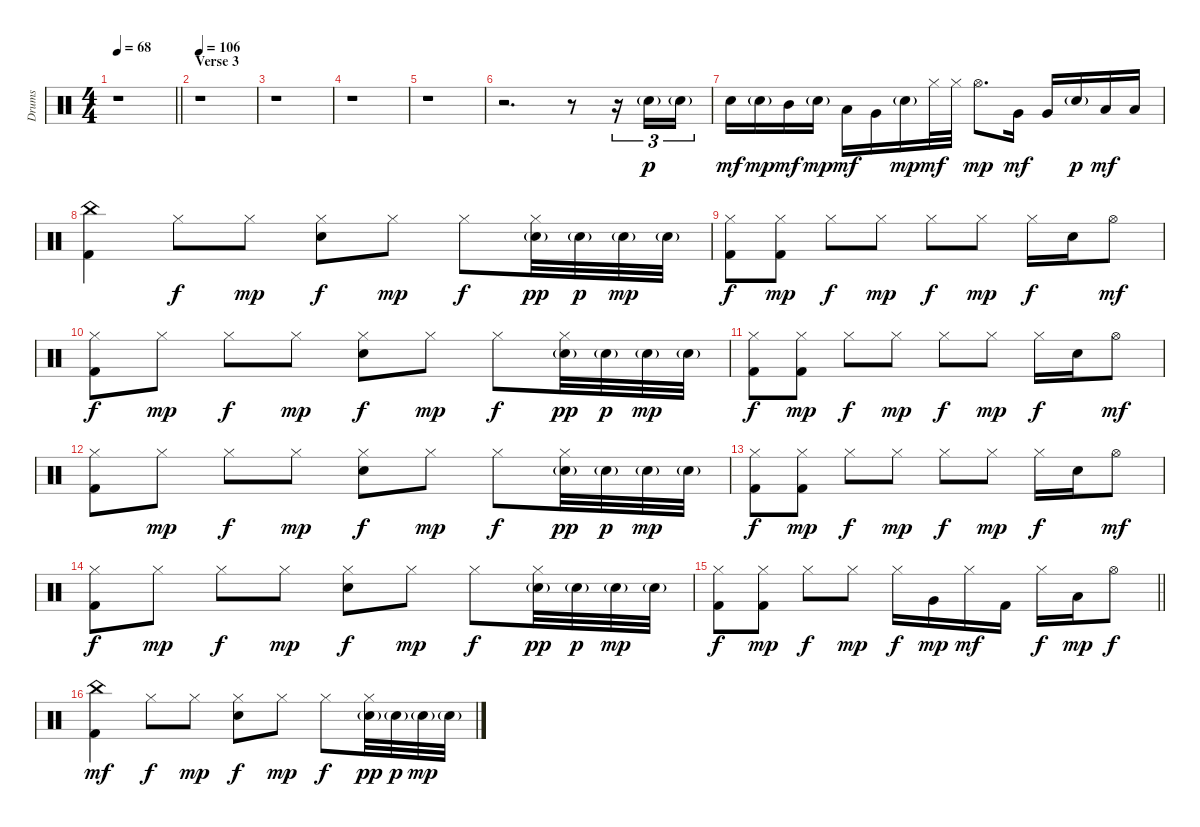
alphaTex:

\track ("Drums" "Drums") {instrument percussion}
\staff {score}
\articulation defaults
\ts (4 4)
\tempo 68
\clef neutral
\barLineRight lightlight
\ks c
r.1{dy fff} |
\section ("" "Verse 3")
\tempo 106
r.1 |
r.1 |
r.1 |
r.1 |
r.2{d} r.8 r.16{tu (3 2)} "Electric Snare (hit)"{g}.16{tu (3 2) dy p} "Electric Snare (hit)"{g}.16{tu (3 2)} |
"Electric Snare (hit)".16{dy mf} "Electric Snare (hit)"{g}.16{dy mp} "Mid Tom (hit)".16{dy mf} "Electric Snare (hit)"{g}.16{dy mp} "Low Tom (hit)".16{dy mf} "Very Low Tom (hit)".16 "Electric Snare (hit)"{g}.16{dy mp} "Hi-Hat (closed)".32{dy mf} "Hi-Hat (closed)".32 "Hi-Hat (open)".8{d dy mp} "Very Low Tom (hit)".16{dy mf} "Very Low Tom (hit)".16 "Electric Snare (hit)"{g}.16{dy p} "Low Floor Tom (hit)".16{dy mf} "Low Floor Tom (hit)".16 |
("China (hit)" "Kick (hit) 2").4 "Hi-Hat (closed)".8{dy f} "Hi-Hat (closed)".8{dy mp} ("Hi-Hat (closed)" "Electric Snare (hit)").8{dy f} "Hi-Hat (closed)".8{dy mp} "Hi-Hat (closed)".8{dy f} ("Hi-Hat (closed)" "Electric Snare (hit)"{g}).32{dy pp} "Electric Snare (hit)"{g}.32{dy p} "Electric Snare (hit)"{g}.32{dy mp} "Electric Snare (hit)"{g}.32 |
("Hi-Hat (closed)" "Kick (hit) 2").8{dy f} ("Hi-Hat (closed)" "Kick (hit) 2").8{dy mp} "Hi-Hat (closed)".8{dy f} "Hi-Hat (closed)".8{dy mp} "Hi-Hat (closed)".8{dy f} "Hi-Hat (closed)".8{dy mp} "Hi-Hat (closed)".16{dy f} "Electric Snare (hit)".16 "Hi-Hat (open)".8{dy mf} |
("Hi-Hat (closed)" "Kick (hit) 2").8{dy f} "Hi-Hat (closed)".8{dy mp} "Hi-Hat (closed)".8{dy f} "Hi-Hat (closed)".8{dy mp} ("Hi-Hat (closed)" "Electric Snare (hit)").8{dy f} "Hi-Hat (closed)".8{dy mp} "Hi-Hat (closed)".8{dy f} ("Hi-Hat (closed)" "Electric Snare (hit)"{g}).32{dy pp} "Electric Snare (hit)"{g}.32{dy p} "Electric Snare (hit)"{g}.32{dy mp} "Electric Snare (hit)"{g}.32 |
("Hi-Hat (closed)" "Kick (hit) 2").8{dy f} ("Hi-Hat (closed)" "Kick (hit) 2").8{dy mp} "Hi-Hat (closed)".8{dy f} "Hi-Hat (closed)".8{dy mp} "Hi-Hat (closed)".8{dy f} "Hi-Hat (closed)".8{dy mp} "Hi-Hat (closed)".16{dy f} "Electric Snare (hit)".16 "Hi-Hat (open)".8{dy mf} |
("Hi-Hat (closed)" "Kick (hit) 2").8 "Hi-Hat (closed)".8{dy mp} "Hi-Hat (closed)".8{dy f} "Hi-Hat (closed)".8{dy mp} ("Hi-Hat (closed)" "Electric Snare (hit)").8{dy f} "Hi-Hat (closed)".8{dy mp} "Hi-Hat (closed)".8{dy f} ("Hi-Hat (closed)" "Electric Snare (hit)"{g}).32{dy pp} "Electric Snare (hit)"{g}.32{dy p} "Electric Snare (hit)"{g}.32{dy mp} "Electric Snare (hit)"{g}.32 |
("Hi-Hat (closed)" "Kick (hit) 2").8{dy f} ("Hi-Hat (closed)" "Kick (hit) 2").8{dy mp} "Hi-Hat (closed)".8{dy f} "Hi-Hat (closed)".8{dy mp} "Hi-Hat (closed)".8{dy f} "Hi-Hat (closed)".8{dy mp} "Hi-Hat (closed)".16{dy f} "Electric Snare (hit)".16 "Hi-Hat (open)".8{dy mf} |
("Hi-Hat (closed)" "Kick (hit) 2").8{dy f} "Hi-Hat (closed)".8{dy mp} "Hi-Hat (closed)".8{dy f} "Hi-Hat (closed)".8{dy mp} ("Hi-Hat (closed)" "Electric Snare (hit)").8{dy f} "Hi-Hat (closed)".8{dy mp} "Hi-Hat (closed)".8{dy f} ("Hi-Hat (closed)" "Electric Snare (hit)"{g}).32{dy pp} "Electric Snare (hit)"{g}.32{dy p} "Electric Snare (hit)"{g}.32{dy mp} "Electric Snare (hit)"{g}.32 |
\barLineRight lightlight
("Hi-Hat (closed)" "Kick (hit) 2").8{dy f} ("Hi-Hat (closed)" "Kick (hit) 2").8{dy mp} "Hi-Hat (closed)".8{dy f} "Hi-Hat (closed)".8{dy mp} "Hi-Hat (closed)".16{dy f} "Very Low Tom (hit)".16{dy mp} "Hi-Hat (closed)".16{dy mf} "Kick (hit) 2".16 "Hi-Hat (closed)".16{dy f} "Low Tom (hit)".16{dy mp} "Hi-Hat (open)".8{dy f} |
("China (hit)" "Kick (hit) 2").4{dy mf} "Hi-Hat (closed)".8{dy f} "Hi-Hat (closed)".8{dy mp} ("Hi-Hat (closed)" "Electric Snare (hit)").8{dy f} "Hi-Hat (closed)".8{dy mp} "Hi-Hat (closed)".8{dy f} ("Hi-Hat (closed)" "Electric Snare (hit)"{g}).32{dy pp} "Electric Snare (hit)"{g}.32{dy p} "Electric Snare (hit)"{g}.32{dy mp} "Electric Snare (hit)"{g}.32
